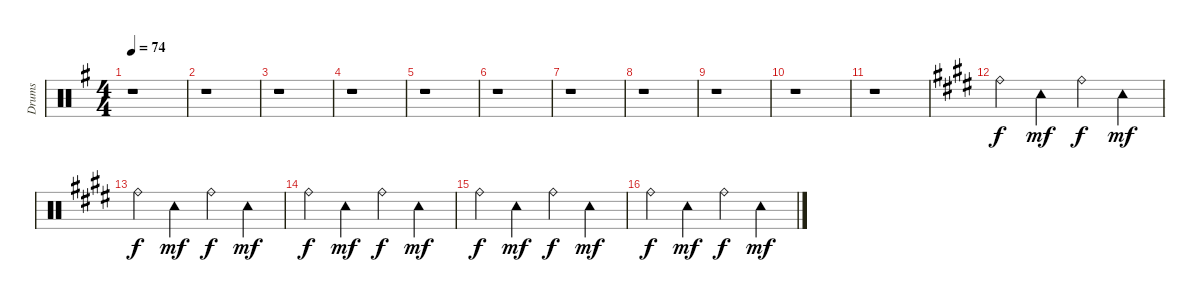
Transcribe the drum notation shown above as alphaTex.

\track ("Drums" "Drums") {instrument percussion}
\staff {score}
\articulation defaults
\ts (4 4)
\tempo 74
\clef neutral
\ks g
r.1{dy f} |
r.1 |
r.1 |
r.1 |
r.1 |
r.1 |
r.1 |
r.1 |
r.1 |
r.1 |
r.1 |
\ks e "Ride (bell)".4 "Tambourine (hit)".4{dy mf} "Ride (bell)".4{dy f} "Tambourine (hit)".4{dy mf}
|
"Ride (bell)".4{dy f} "Tambourine (hit)".4{dy mf} "Ride (bell)".4{dy f} "Tambourine (hit)".4{dy mf} |
"Ride (bell)".4{dy f} "Tambourine (hit)".4{dy mf} "Ride (bell)".4{dy f} "Tambourine (hit)".4{dy mf} |
"Ride (bell)".4{dy f} "Tambourine (hit)".4{dy mf} "Ride (bell)".4{dy f} "Tambourine (hit)".4{dy mf} |
"Ride (bell)".4{dy f} "Tambourine (hit)".4{dy mf} "Ride (bell)".4{dy f} "Tambourine (hit)".4{dy mf}
